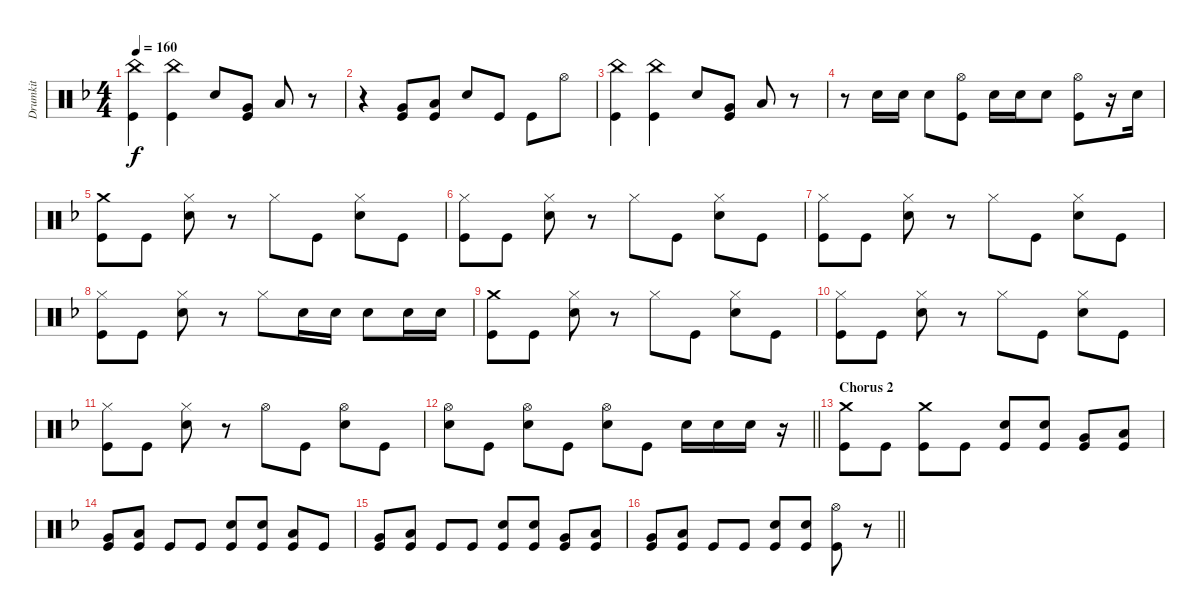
\track ("Drumkit" "Drumkit") {instrument percussion}
\staff {score}
\articulation defaults
\ts (4 4)
\tempo 160
\clef neutral
\ks dminor
("China (hit)" "Kick (hit)").4{dy f} ("China (hit)" "Kick (hit)").4 "Snare (hit) 2".8 ("Very Low Tom (hit)" "Kick (hit)").8 "Low Tom (hit)".8 r.8 |
r.4 ("Very Low Tom (hit)" "Kick (hit)").8 ("Low Floor Tom (hit)" "Kick (hit)").8 "Snare (hit) 2".8 "Kick (hit)".8 "Kick (hit)".8 "Hi-Hat (open)".8 |
("China (hit)" "Kick (hit)").4 ("China (hit)" "Kick (hit)").4 "Snare (hit) 2".8 ("Very Low Tom (hit)" "Kick (hit)").8 "Low Tom (hit)".8 r.8 |
r.8 "Snare (hit) 2".16 "Snare (hit) 2".16 "Snare (hit) 2".8 ("Hi-Hat (open)" "Kick (hit)").8 "Snare (hit) 2".16 "Snare (hit) 2".16 "Snare (hit) 2".8 ("Hi-Hat (open)" "Kick (hit)").8 r.16 "Snare (hit) 2".16 |
("Crash medium (hit)" "Kick (hit)").8 "Kick (hit)".8 ("Hi-Hat (closed)" "Snare (hit) 2").8 r.8 "Hi-Hat (closed)".8 "Kick (hit)".8 ("Hi-Hat (closed)" "Snare (hit) 2").8 "Kick (hit)".8 |
("Hi-Hat (closed)" "Kick (hit)").8 "Kick (hit)".8 ("Hi-Hat (closed)" "Snare (hit) 2").8 r.8 "Hi-Hat (closed)".8 "Kick (hit)".8 ("Hi-Hat (closed)" "Snare (hit) 2").8 "Kick (hit)".8 |
("Hi-Hat (closed)" "Kick (hit)").8 "Kick (hit)".8 ("Hi-Hat (closed)" "Snare (hit) 2").8 r.8 "Hi-Hat (closed)".8 "Kick (hit)".8 ("Hi-Hat (closed)" "Snare (hit) 2").8 "Kick (hit)".8 |
("Hi-Hat (closed)" "Kick (hit)").8 "Kick (hit)".8 ("Hi-Hat (closed)" "Snare (hit) 2").8 r.8 "Hi-Hat (closed)".8 "Snare (hit) 2".16 "Snare (hit) 2".16 "Snare (hit) 2".8 "Snare (hit) 2".16 "Snare (hit) 2".16 |
("Crash medium (hit)" "Kick (hit)").8 "Kick (hit)".8 ("Hi-Hat (closed)" "Snare (hit) 2").8 r.8 "Hi-Hat (closed)".8 "Kick (hit)".8 ("Hi-Hat (closed)" "Snare (hit) 2").8 "Kick (hit)".8 |
("Hi-Hat (closed)" "Kick (hit)").8 "Kick (hit)".8 ("Hi-Hat (closed)" "Snare (hit) 2").8 r.8 "Hi-Hat (closed)".8 "Kick (hit)".8 ("Hi-Hat (closed)" "Snare (hit) 2").8 "Kick (hit)".8 |
("Hi-Hat (closed)" "Kick (hit)").8 "Kick (hit)".8 ("Hi-Hat (closed)" "Snare (hit) 2").8 r.8 "Hi-Hat (open)".8 "Kick (hit)".8 ("Hi-Hat (open)" "Snare (hit) 2").8 "Kick (hit)".8 |
\barLineRight lightlight
("Hi-Hat (open)" "Snare (hit) 2").8 "Kick (hit)".8 ("Hi-Hat (open)" "Snare (hit) 2").8 "Kick (hit)".8 ("Hi-Hat (open)" "Snare (hit) 2").8 "Kick (hit)".8 "Snare (hit) 2".16 "Snare (hit) 2".16 "Snare (hit) 2".16 r.16 |
\section ("" "Chorus 2")
("Crash medium (hit)" "Kick (hit)").8 "Kick (hit)".8 ("Crash medium (hit)" "Kick (hit)").8 "Kick (hit)".8 ("Snare (hit) 2" "Kick (hit)").8 ("Snare (hit) 2" "Kick (hit)").8 ("Very Low Tom (hit)" "Kick (hit)").8 ("Low Floor Tom (hit)" "Kick (hit)").8 |
("Very Low Tom (hit)" "Kick (hit)").8 ("Low Floor Tom (hit)" "Kick (hit)").8 "Kick (hit)".8 "Kick (hit)".8 ("Snare (hit) 2" "Kick (hit)").8 ("Snare (hit) 2" "Kick (hit)").8 ("Low Floor Tom (hit)" "Kick (hit)").8 "Kick (hit)".8 |
("Very Low Tom (hit)" "Kick (hit)").8 ("Low Floor Tom (hit)" "Kick (hit)").8 "Kick (hit)".8 "Kick (hit)".8 ("Snare (hit) 2" "Kick (hit)").8 ("Snare (hit) 2" "Kick (hit)").8 ("Very Low Tom (hit)" "Kick (hit)").8 ("Low Floor Tom (hit)" "Kick (hit)").8 |
\barLineRight lightlight
("Very Low Tom (hit)" "Kick (hit)").8 ("Low Floor Tom (hit)" "Kick (hit)").8 "Kick (hit)".8 "Kick (hit)".8 ("Snare (hit) 2" "Kick (hit)").8 ("Snare (hit) 2" "Kick (hit)").8 ("Hi-Hat (open)" "Kick (hit)").8 r.8
